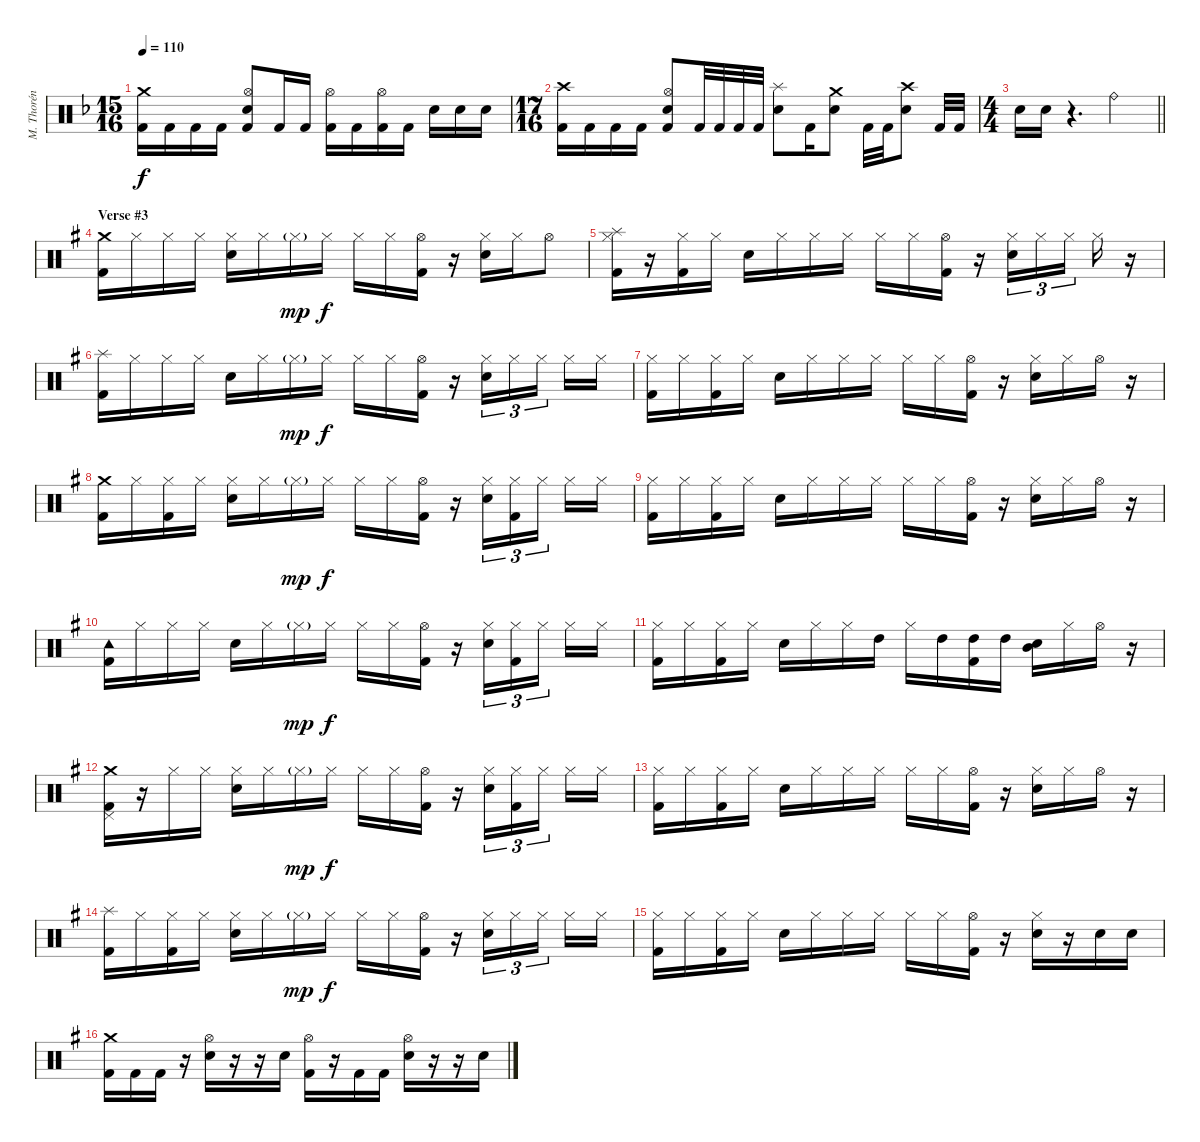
\track ("M. Thorén (Drums)" "M. Thorén ") {instrument percussion}
\staff {score}
\articulation defaults
\ts (15 16)
\tempo 110
\clef neutral
\ks dminor
("Crash medium (hit)" "Kick (hit) 2").16{dy f} "Kick (hit) 2".16 "Kick (hit) 2".16 "Kick (hit) 2".16 ("Hi-Hat (open)" "Electric Snare (hit)" "Kick (hit) 2").8 "Kick (hit) 2".16 "Kick (hit) 2".16 ("Hi-Hat (open)" "Kick (hit) 2").16 "Kick (hit) 2".16 ("Hi-Hat (open)" "Kick (hit) 2").16 "Kick (hit) 2".16 "Electric Snare (hit)".16 "Electric Snare (hit)".16 "Electric Snare (hit)".16 |
\ts (17 16)
("Crash high (hit)" "Kick (hit) 2").16 "Kick (hit) 2".16 "Kick (hit) 2".16 "Kick (hit) 2".16 ("Hi-Hat (open)" "Electric Snare (hit)" "Kick (hit) 2").8 "Kick (hit) 2".32 "Kick (hit) 2".32 "Kick (hit) 2".32 "Kick (hit) 2".32 ("Splash (hit)" "Electric Snare (hit)").8 "Kick (hit) 2".16 ("Crash medium (hit)" "Electric Snare (hit)").8 "Kick (hit) 2".32 "Kick (hit) 2".32 ("Crash high (hit)" "Electric Snare (hit)").8 "Kick (hit) 2".32 "Kick (hit) 2".32 |
\ts (4 4)
\barLineRight lightlight "Electric Snare (hit)".16 "Electric Snare (hit)".16
r.4{d} "Ride (bell)".2 |
\section ("" "Verse #3")
\ks eminor
("Crash medium (hit)" "Kick (hit) 2").16 "Hi-Hat (closed)".16 "Hi-Hat (closed)".16 "Hi-Hat (closed)".16 ("Hi-Hat (closed)" "Electric Snare (hit)").16 "Hi-Hat (closed)".16 "Hi-Hat (closed)"{g}.16{dy mp} "Hi-Hat (closed)".16{dy f} "Hi-Hat (closed)".16 "Hi-Hat (closed)".16 ("Hi-Hat (open)" "Kick (hit) 2").16 r.16 ("Hi-Hat (closed)" "Electric Snare (hit)").16 "Hi-Hat (closed)".16 "Hi-Hat (open)".8 |
("Splash (hit)" "Hi-Hat (closed)" "Kick (hit) 2").16 r.16 ("Hi-Hat (closed)" "Kick (hit) 2").16 "Hi-Hat (closed)".16 "Electric Snare (hit)".16 "Hi-Hat (closed)".16 "Hi-Hat (closed)".16 "Hi-Hat (closed)".16 "Hi-Hat (closed)".16 "Hi-Hat (closed)".16 ("Hi-Hat (open)" "Kick (hit) 2").16 r.16 ("Hi-Hat (closed)" "Electric Snare (hit)").16{tu (3 2)} "Hi-Hat (closed)".16{tu (3 2)} "Hi-Hat (closed)".16{tu (3 2) beam splitsecondary} "Hi-Hat (closed)".16 r.16 |
("Splash (hit)" "Kick (hit) 2").16 "Hi-Hat (closed)".16 "Hi-Hat (closed)".16 "Hi-Hat (closed)".16 "Electric Snare (hit)".16 "Hi-Hat (closed)".16 "Hi-Hat (closed)"{g}.16{dy mp} "Hi-Hat (closed)".16{dy f} "Hi-Hat (closed)".16 "Hi-Hat (closed)".16 ("Hi-Hat (open)" "Kick (hit) 2").16 r.16 ("Hi-Hat (closed)" "Electric Snare (hit)").16{tu (3 2)} "Hi-Hat (closed)".16{tu (3 2)} "Hi-Hat (closed)".16{tu (3 2) beam splitsecondary} "Hi-Hat (closed)".16 "Hi-Hat (closed)".16 |
("Hi-Hat (closed)" "Kick (hit) 2").16 "Hi-Hat (closed)".16 ("Hi-Hat (closed)" "Kick (hit) 2").16 "Hi-Hat (closed)".16 "Electric Snare (hit)".16 "Hi-Hat (closed)".16 "Hi-Hat (closed)".16 "Hi-Hat (closed)".16 "Hi-Hat (closed)".16 "Hi-Hat (closed)".16 ("Hi-Hat (open)" "Kick (hit) 2").16 r.16 ("Hi-Hat (closed)" "Electric Snare (hit)").16 "Hi-Hat (closed)".16 "Hi-Hat (open)".16 r.16 |
("Crash medium (hit)" "Kick (hit) 2").16 "Hi-Hat (closed)".16 ("Hi-Hat (closed)" "Kick (hit) 2").16 "Hi-Hat (closed)".16 ("Hi-Hat (closed)" "Electric Snare (hit)").16 "Hi-Hat (closed)".16 "Hi-Hat (closed)"{g}.16{dy mp} "Hi-Hat (closed)".16{dy f} "Hi-Hat (closed)".16 "Hi-Hat (closed)".16 ("Hi-Hat (open)" "Kick (hit) 2").16 r.16 ("Hi-Hat (closed)" "Electric Snare (hit)").16{tu (3 2)} ("Hi-Hat (closed)" "Kick (hit) 2").16{tu (3 2)} "Hi-Hat (closed)".16{tu (3 2) beam splitsecondary} "Hi-Hat (closed)".16 "Hi-Hat (closed)".16 |
("Hi-Hat (closed)" "Kick (hit) 2").16 "Hi-Hat (closed)".16 ("Hi-Hat (closed)" "Kick (hit) 2").16 "Hi-Hat (closed)".16 "Electric Snare (hit)".16 "Hi-Hat (closed)".16 "Hi-Hat (closed)".16 "Hi-Hat (closed)".16 "Hi-Hat (closed)".16 "Hi-Hat (closed)".16 ("Hi-Hat (open)" "Kick (hit) 2").16 r.16 ("Hi-Hat (closed)" "Electric Snare (hit)").16 "Hi-Hat (closed)".16 "Hi-Hat (open)".16 r.16 |
("Tambourine (hit)" "Kick (hit) 2").16 "Hi-Hat (closed)".16 "Hi-Hat (closed)".16 "Hi-Hat (closed)".16 "Electric Snare (hit)".16 "Hi-Hat (closed)".16 "Hi-Hat (closed)"{g}.16{dy mp} "Hi-Hat (closed)".16{dy f} "Hi-Hat (closed)".16 "Hi-Hat (closed)".16 ("Hi-Hat (open)" "Kick (hit) 2").16 r.16 ("Hi-Hat (closed)" "Electric Snare (hit)").16{tu (3 2)} ("Hi-Hat (closed)" "Kick (hit) 2").16{tu (3 2)} "Hi-Hat (closed)".16{tu (3 2) beam splitsecondary} "Hi-Hat (closed)".16 "Hi-Hat (closed)".16 |
("Hi-Hat (closed)" "Kick (hit) 2").16 "Hi-Hat (closed)".16 ("Hi-Hat (closed)" "Kick (hit) 2").16 "Hi-Hat (closed)".16 "Electric Snare (hit)".16 "Hi-Hat (closed)".16 "Hi-Hat (closed)".16 "High Tom (hit)".16 "Hi-Hat (closed)".16 "High Tom (hit)".16 ("High Tom (hit)" "Kick (hit) 2").16 "High Tom (hit)".16 ("Mid Tom (hit)" "Electric Snare (hit)").16 "Hi-Hat (closed)".16 "Hi-Hat (open)".16 r.16 |
("Crash medium (hit)" "Pedal Hi-Hat (hit)" "Kick (hit) 2").16 r.16 "Hi-Hat (closed)".16 "Hi-Hat (closed)".16 ("Hi-Hat (closed)" "Electric Snare (hit)").16 "Hi-Hat (closed)".16 "Hi-Hat (closed)"{g}.16{dy mp} "Hi-Hat (closed)".16{dy f} "Hi-Hat (closed)".16 "Hi-Hat (closed)".16 ("Hi-Hat (open)" "Kick (hit) 2").16 r.16 ("Hi-Hat (closed)" "Electric Snare (hit)").16{tu (3 2)} ("Hi-Hat (closed)" "Kick (hit) 2").16{tu (3 2)} "Hi-Hat (closed)".16{tu (3 2) beam splitsecondary} "Hi-Hat (closed)".16 "Hi-Hat (closed)".16 |
("Hi-Hat (closed)" "Kick (hit) 2").16 "Hi-Hat (closed)".16 ("Hi-Hat (closed)" "Kick (hit) 2").16 "Hi-Hat (closed)".16 "Electric Snare (hit)".16 "Hi-Hat (closed)".16 "Hi-Hat (closed)".16 "Hi-Hat (closed)".16 "Hi-Hat (closed)".16 "Hi-Hat (closed)".16 ("Hi-Hat (open)" "Kick (hit) 2").16 r.16 ("Hi-Hat (closed)" "Electric Snare (hit)").16 "Hi-Hat (closed)".16 "Hi-Hat (open)".16 r.16 |
("Splash (hit)" "Kick (hit) 2").16 "Hi-Hat (closed)".16 ("Hi-Hat (closed)" "Kick (hit) 2").16 "Hi-Hat (closed)".16 ("Hi-Hat (closed)" "Electric Snare (hit)").16 "Hi-Hat (closed)".16 "Hi-Hat (closed)"{g}.16{dy mp} "Hi-Hat (closed)".16{dy f} "Hi-Hat (closed)".16 "Hi-Hat (closed)".16 ("Hi-Hat (open)" "Kick (hit) 2").16 r.16 ("Hi-Hat (closed)" "Electric Snare (hit)").16{tu (3 2)} "Hi-Hat (closed)".16{tu (3 2)} "Hi-Hat (closed)".16{tu (3 2) beam splitsecondary} "Hi-Hat (closed)".16 "Hi-Hat (closed)".16 |
("Hi-Hat (closed)" "Kick (hit) 2").16 "Hi-Hat (closed)".16 ("Hi-Hat (closed)" "Kick (hit) 2").16 "Hi-Hat (closed)".16 "Electric Snare (hit)".16 "Hi-Hat (closed)".16 "Hi-Hat (closed)".16 "Hi-Hat (closed)".16 "Hi-Hat (closed)".16 "Hi-Hat (closed)".16 ("Hi-Hat (open)" "Kick (hit) 2").16 r.16 ("Hi-Hat (closed)" "Electric Snare (hit)").16 r.16 "Electric Snare (hit)".16 "Electric Snare (hit)".16 |
("Crash medium (hit)" "Kick (hit) 2").16 "Kick (hit) 2".16 "Kick (hit) 2".16 r.16 ("Hi-Hat (open)" "Electric Snare (hit)").16 r.16 r.16 "Electric Snare (hit)".16 ("Hi-Hat (open)" "Kick (hit) 2").16 r.16 "Kick (hit) 2".16 "Kick (hit) 2".16 ("Hi-Hat (open)" "Electric Snare (hit)").16 r.16 r.16 "Electric Snare (hit)".16
